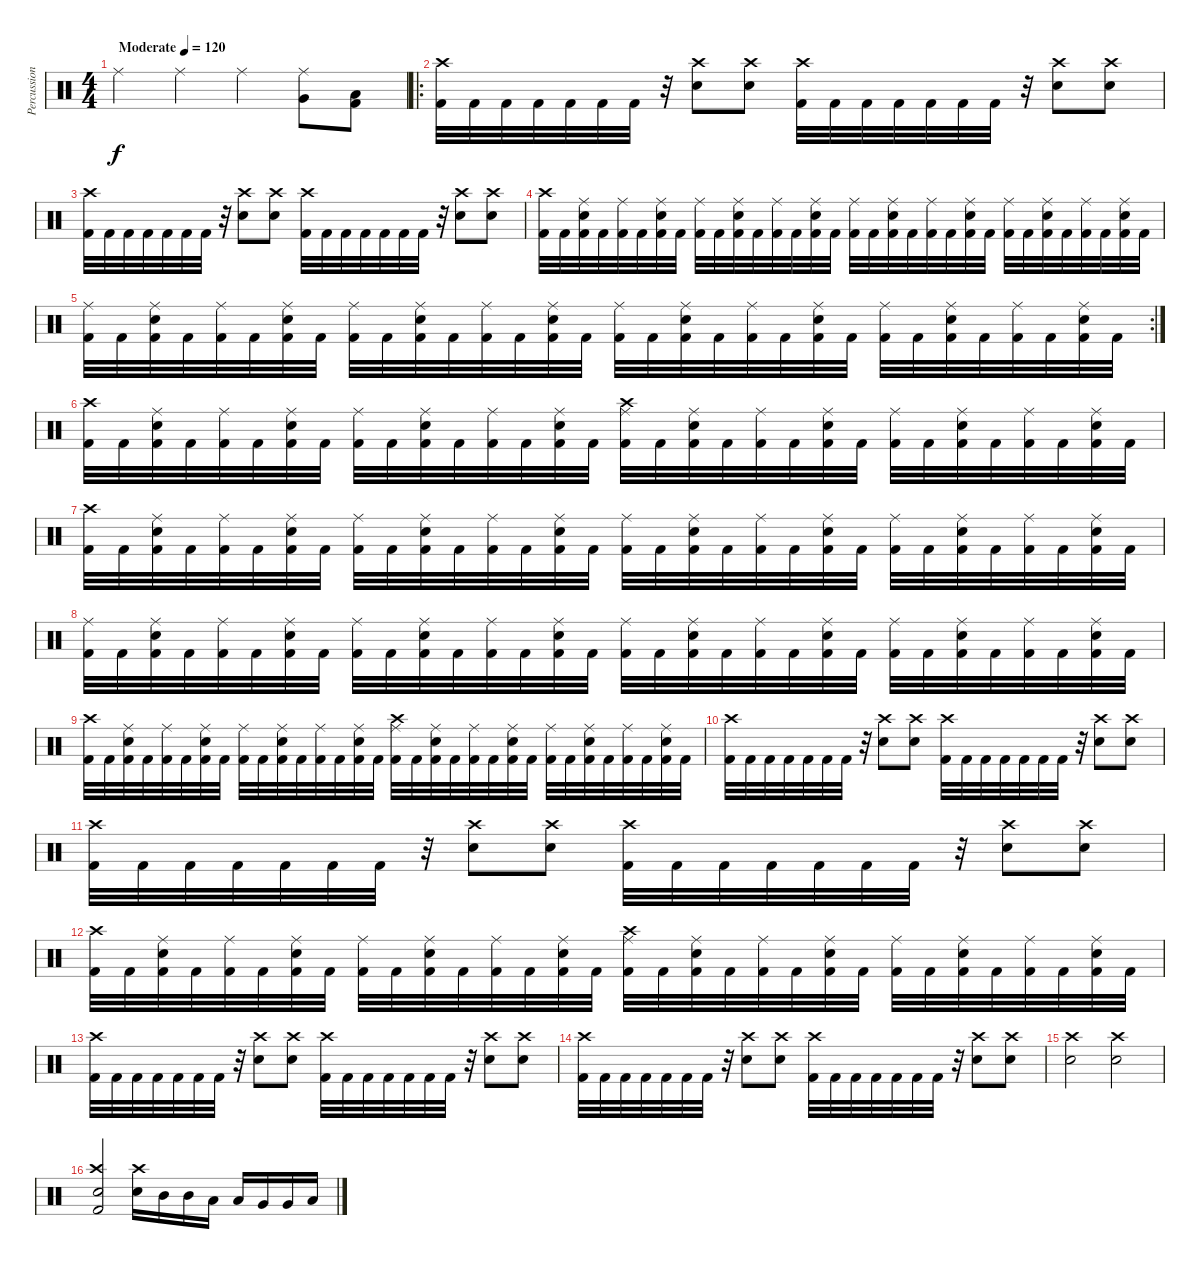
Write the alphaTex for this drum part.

\track ("Percussion" "Percussion") {instrument percussion}
\staff {score}
\articulation defaults
\ts (4 4)
\tempo (120 "Moderate")
\clef neutral
\ks c "Ride (middle)".4{dy f} "Ride (middle)".4 "Ride (middle)".4
("Very Low Tom (hit)" "Ride (middle)").8 ("Low Floor Tom (hit)" "Kick (hit) 2").8 |
\ro
("Crash high (hit)" "Kick (hit) 2").32 "Kick (hit) 2".32 "Kick (hit) 2".32 "Kick (hit) 2".32 "Kick (hit) 2".32 "Kick (hit) 2".32 "Kick (hit) 2".32 r.32 ("Crash high (hit)" "Snare (hit) 2").8 ("Crash high (hit)" "Snare (hit) 2").8 ("Crash high (hit)" "Kick (hit) 2").32 "Kick (hit) 2".32 "Kick (hit) 2".32 "Kick (hit) 2".32 "Kick (hit) 2".32 "Kick (hit) 2".32 "Kick (hit) 2".32 r.32 ("Crash high (hit)" "Snare (hit) 2").8 ("Crash high (hit)" "Snare (hit) 2").8 |
("Crash high (hit)" "Kick (hit) 2").32 "Kick (hit) 2".32 "Kick (hit) 2".32 "Kick (hit) 2".32 "Kick (hit) 2".32 "Kick (hit) 2".32 "Kick (hit) 2".32 r.32 ("Crash high (hit)" "Snare (hit) 2").8 ("Crash high (hit)" "Snare (hit) 2").8 ("Crash high (hit)" "Kick (hit) 2").32 "Kick (hit) 2".32 "Kick (hit) 2".32 "Kick (hit) 2".32 "Kick (hit) 2".32 "Kick (hit) 2".32 "Kick (hit) 2".32 r.32 ("Crash high (hit)" "Snare (hit) 2").8 ("Crash high (hit)" "Snare (hit) 2").8 |
("Crash high (hit)" "Kick (hit) 2").32 "Kick (hit) 2".32 ("Ride (middle)" "Snare (hit) 2" "Kick (hit) 2").32 "Kick (hit) 2".32 ("Ride (middle)" "Kick (hit) 2").32 "Kick (hit) 2".32 ("Ride (middle)" "Snare (hit) 2" "Kick (hit) 2").32 "Kick (hit) 2".32 ("Ride (middle)" "Kick (hit) 2").32 "Kick (hit) 2".32 ("Ride (middle)" "Snare (hit) 2" "Kick (hit) 2").32 "Kick (hit) 2".32 ("Ride (middle)" "Kick (hit) 2").32 "Kick (hit) 2".32 ("Ride (middle)" "Snare (hit) 2" "Kick (hit) 2").32 "Kick (hit) 2".32 ("Ride (middle)" "Kick (hit) 2").32 "Kick (hit) 2".32 ("Ride (middle)" "Snare (hit) 2" "Kick (hit) 2").32 "Kick (hit) 2".32 ("Ride (middle)" "Kick (hit) 2").32 "Kick (hit) 2".32 ("Ride (middle)" "Snare (hit) 2" "Kick (hit) 2").32 "Kick (hit) 2".32 ("Ride (middle)" "Kick (hit) 2").32 "Kick (hit) 2".32 ("Ride (middle)" "Snare (hit) 2" "Kick (hit) 2").32 "Kick (hit) 2".32 ("Ride (middle)" "Kick (hit) 2").32 "Kick (hit) 2".32 ("Ride (middle)" "Snare (hit) 2" "Kick (hit) 2").32 "Kick (hit) 2".32 |
\rc 2
("Ride (middle)" "Kick (hit) 2").32 "Kick (hit) 2".32 ("Ride (middle)" "Snare (hit) 2" "Kick (hit) 2").32 "Kick (hit) 2".32 ("Ride (middle)" "Kick (hit) 2").32 "Kick (hit) 2".32 ("Ride (middle)" "Snare (hit) 2" "Kick (hit) 2").32 "Kick (hit) 2".32 ("Ride (middle)" "Kick (hit) 2").32 "Kick (hit) 2".32 ("Ride (middle)" "Snare (hit) 2" "Kick (hit) 2").32 "Kick (hit) 2".32 ("Ride (middle)" "Kick (hit) 2").32 "Kick (hit) 2".32 ("Ride (middle)" "Snare (hit) 2" "Kick (hit) 2").32 "Kick (hit) 2".32 ("Ride (middle)" "Kick (hit) 2").32 "Kick (hit) 2".32 ("Ride (middle)" "Snare (hit) 2" "Kick (hit) 2").32 "Kick (hit) 2".32 ("Ride (middle)" "Kick (hit) 2").32 "Kick (hit) 2".32 ("Ride (middle)" "Snare (hit) 2" "Kick (hit) 2").32 "Kick (hit) 2".32 ("Ride (middle)" "Kick (hit) 2").32 "Kick (hit) 2".32 ("Ride (middle)" "Snare (hit) 2" "Kick (hit) 2").32 "Kick (hit) 2".32 ("Ride (middle)" "Kick (hit) 2").32 "Kick (hit) 2".32 ("Ride (middle)" "Snare (hit) 2" "Kick (hit) 2").32 "Kick (hit) 2".32 |
("Crash high (hit)" "Kick (hit) 2").32 "Kick (hit) 2".32 ("Ride (middle)" "Snare (hit) 2" "Kick (hit) 2").32 "Kick (hit) 2".32 ("Ride (middle)" "Kick (hit) 2").32 "Kick (hit) 2".32 ("Ride (middle)" "Snare (hit) 2" "Kick (hit) 2").32 "Kick (hit) 2".32 ("Ride (middle)" "Kick (hit) 2").32 "Kick (hit) 2".32 ("Ride (middle)" "Snare (hit) 2" "Kick (hit) 2").32 "Kick (hit) 2".32 ("Ride (middle)" "Kick (hit) 2").32 "Kick (hit) 2".32 ("Ride (middle)" "Snare (hit) 2" "Kick (hit) 2").32 "Kick (hit) 2".32 ("Crash high (hit)" "Ride (middle)" "Kick (hit) 2").32 "Kick (hit) 2".32 ("Ride (middle)" "Snare (hit) 2" "Kick (hit) 2").32 "Kick (hit) 2".32 ("Ride (middle)" "Kick (hit) 2").32 "Kick (hit) 2".32 ("Ride (middle)" "Snare (hit) 2" "Kick (hit) 2").32 "Kick (hit) 2".32 ("Ride (middle)" "Kick (hit) 2").32 "Kick (hit) 2".32 ("Ride (middle)" "Snare (hit) 2" "Kick (hit) 2").32 "Kick (hit) 2".32 ("Ride (middle)" "Kick (hit) 2").32 "Kick (hit) 2".32 ("Ride (middle)" "Snare (hit) 2" "Kick (hit) 2").32 "Kick (hit) 2".32 |
("Crash high (hit)" "Kick (hit) 2").32 "Kick (hit) 2".32 ("Ride (middle)" "Snare (hit) 2" "Kick (hit) 2").32 "Kick (hit) 2".32 ("Ride (middle)" "Kick (hit) 2").32 "Kick (hit) 2".32 ("Ride (middle)" "Snare (hit) 2" "Kick (hit) 2").32 "Kick (hit) 2".32 ("Ride (middle)" "Kick (hit) 2").32 "Kick (hit) 2".32 ("Ride (middle)" "Snare (hit) 2" "Kick (hit) 2").32 "Kick (hit) 2".32 ("Ride (middle)" "Kick (hit) 2").32 "Kick (hit) 2".32 ("Ride (middle)" "Snare (hit) 2" "Kick (hit) 2").32 "Kick (hit) 2".32 ("Ride (middle)" "Kick (hit) 2").32 "Kick (hit) 2".32 ("Ride (middle)" "Snare (hit) 2" "Kick (hit) 2").32 "Kick (hit) 2".32 ("Ride (middle)" "Kick (hit) 2").32 "Kick (hit) 2".32 ("Ride (middle)" "Snare (hit) 2" "Kick (hit) 2").32 "Kick (hit) 2".32 ("Ride (middle)" "Kick (hit) 2").32 "Kick (hit) 2".32 ("Ride (middle)" "Snare (hit) 2" "Kick (hit) 2").32 "Kick (hit) 2".32 ("Ride (middle)" "Kick (hit) 2").32 "Kick (hit) 2".32 ("Ride (middle)" "Snare (hit) 2" "Kick (hit) 2").32 "Kick (hit) 2".32 |
("Ride (middle)" "Kick (hit) 2").32 "Kick (hit) 2".32 ("Ride (middle)" "Snare (hit) 2" "Kick (hit) 2").32 "Kick (hit) 2".32 ("Ride (middle)" "Kick (hit) 2").32 "Kick (hit) 2".32 ("Ride (middle)" "Snare (hit) 2" "Kick (hit) 2").32 "Kick (hit) 2".32 ("Ride (middle)" "Kick (hit) 2").32 "Kick (hit) 2".32 ("Ride (middle)" "Snare (hit) 2" "Kick (hit) 2").32 "Kick (hit) 2".32 ("Ride (middle)" "Kick (hit) 2").32 "Kick (hit) 2".32 ("Ride (middle)" "Snare (hit) 2" "Kick (hit) 2").32 "Kick (hit) 2".32 ("Ride (middle)" "Kick (hit) 2").32 "Kick (hit) 2".32 ("Ride (middle)" "Snare (hit) 2" "Kick (hit) 2").32 "Kick (hit) 2".32 ("Ride (middle)" "Kick (hit) 2").32 "Kick (hit) 2".32 ("Ride (middle)" "Snare (hit) 2" "Kick (hit) 2").32 "Kick (hit) 2".32 ("Ride (middle)" "Kick (hit) 2").32 "Kick (hit) 2".32 ("Ride (middle)" "Snare (hit) 2" "Kick (hit) 2").32 "Kick (hit) 2".32 ("Ride (middle)" "Kick (hit) 2").32 "Kick (hit) 2".32 ("Ride (middle)" "Snare (hit) 2" "Kick (hit) 2").32 "Kick (hit) 2".32 |
("Crash high (hit)" "Kick (hit) 2").32 "Kick (hit) 2".32 ("Ride (middle)" "Snare (hit) 2" "Kick (hit) 2").32 "Kick (hit) 2".32 ("Ride (middle)" "Kick (hit) 2").32 "Kick (hit) 2".32 ("Ride (middle)" "Snare (hit) 2" "Kick (hit) 2").32 "Kick (hit) 2".32 ("Ride (middle)" "Kick (hit) 2").32 "Kick (hit) 2".32 ("Ride (middle)" "Snare (hit) 2" "Kick (hit) 2").32 "Kick (hit) 2".32 ("Ride (middle)" "Kick (hit) 2").32 "Kick (hit) 2".32 ("Ride (middle)" "Snare (hit) 2" "Kick (hit) 2").32 "Kick (hit) 2".32 ("Crash high (hit)" "Ride (middle)" "Kick (hit) 2").32 "Kick (hit) 2".32 ("Ride (middle)" "Snare (hit) 2" "Kick (hit) 2").32 "Kick (hit) 2".32 ("Ride (middle)" "Kick (hit) 2").32 "Kick (hit) 2".32 ("Ride (middle)" "Snare (hit) 2" "Kick (hit) 2").32 "Kick (hit) 2".32 ("Ride (middle)" "Kick (hit) 2").32 "Kick (hit) 2".32 ("Ride (middle)" "Snare (hit) 2" "Kick (hit) 2").32 "Kick (hit) 2".32 ("Ride (middle)" "Kick (hit) 2").32 "Kick (hit) 2".32 ("Ride (middle)" "Snare (hit) 2" "Kick (hit) 2").32 "Kick (hit) 2".32 |
("Crash high (hit)" "Kick (hit) 2").32 "Kick (hit) 2".32 "Kick (hit) 2".32 "Kick (hit) 2".32 "Kick (hit) 2".32 "Kick (hit) 2".32 "Kick (hit) 2".32 r.32 ("Crash high (hit)" "Snare (hit) 2").8 ("Crash high (hit)" "Snare (hit) 2").8 ("Crash high (hit)" "Kick (hit) 2").32 "Kick (hit) 2".32 "Kick (hit) 2".32 "Kick (hit) 2".32 "Kick (hit) 2".32 "Kick (hit) 2".32 "Kick (hit) 2".32 r.32 ("Crash high (hit)" "Snare (hit) 2").8 ("Crash high (hit)" "Snare (hit) 2").8 |
("Crash high (hit)" "Kick (hit) 2").32 "Kick (hit) 2".32 "Kick (hit) 2".32 "Kick (hit) 2".32 "Kick (hit) 2".32 "Kick (hit) 2".32 "Kick (hit) 2".32 r.32 ("Crash high (hit)" "Snare (hit) 2").8 ("Crash high (hit)" "Snare (hit) 2").8 ("Crash high (hit)" "Kick (hit) 2").32 "Kick (hit) 2".32 "Kick (hit) 2".32 "Kick (hit) 2".32 "Kick (hit) 2".32 "Kick (hit) 2".32 "Kick (hit) 2".32 r.32 ("Crash high (hit)" "Snare (hit) 2").8 ("Crash high (hit)" "Snare (hit) 2").8 |
("Crash high (hit)" "Kick (hit) 2").32 "Kick (hit) 2".32 ("Ride (middle)" "Snare (hit) 2" "Kick (hit) 2").32 "Kick (hit) 2".32 ("Ride (middle)" "Kick (hit) 2").32 "Kick (hit) 2".32 ("Ride (middle)" "Snare (hit) 2" "Kick (hit) 2").32 "Kick (hit) 2".32 ("Ride (middle)" "Kick (hit) 2").32 "Kick (hit) 2".32 ("Ride (middle)" "Snare (hit) 2" "Kick (hit) 2").32 "Kick (hit) 2".32 ("Ride (middle)" "Kick (hit) 2").32 "Kick (hit) 2".32 ("Ride (middle)" "Snare (hit) 2" "Kick (hit) 2").32 "Kick (hit) 2".32 ("Crash high (hit)" "Ride (middle)" "Kick (hit) 2").32 "Kick (hit) 2".32 ("Ride (middle)" "Snare (hit) 2" "Kick (hit) 2").32 "Kick (hit) 2".32 ("Ride (middle)" "Kick (hit) 2").32 "Kick (hit) 2".32 ("Ride (middle)" "Snare (hit) 2" "Kick (hit) 2").32 "Kick (hit) 2".32 ("Ride (middle)" "Kick (hit) 2").32 "Kick (hit) 2".32 ("Ride (middle)" "Snare (hit) 2" "Kick (hit) 2").32 "Kick (hit) 2".32 ("Ride (middle)" "Kick (hit) 2").32 "Kick (hit) 2".32 ("Ride (middle)" "Snare (hit) 2" "Kick (hit) 2").32 "Kick (hit) 2".32 |
("Crash high (hit)" "Kick (hit) 2").32 "Kick (hit) 2".32 "Kick (hit) 2".32 "Kick (hit) 2".32 "Kick (hit) 2".32 "Kick (hit) 2".32 "Kick (hit) 2".32 r.32 ("Crash high (hit)" "Snare (hit) 2").8 ("Crash high (hit)" "Snare (hit) 2").8 ("Crash high (hit)" "Kick (hit) 2").32 "Kick (hit) 2".32 "Kick (hit) 2".32 "Kick (hit) 2".32 "Kick (hit) 2".32 "Kick (hit) 2".32 "Kick (hit) 2".32 r.32 ("Crash high (hit)" "Snare (hit) 2").8 ("Crash high (hit)" "Snare (hit) 2").8 |
("Crash high (hit)" "Kick (hit) 2").32 "Kick (hit) 2".32 "Kick (hit) 2".32 "Kick (hit) 2".32 "Kick (hit) 2".32 "Kick (hit) 2".32 "Kick (hit) 2".32 r.32 ("Crash high (hit)" "Snare (hit) 2").8 ("Crash high (hit)" "Snare (hit) 2").8 ("Crash high (hit)" "Kick (hit) 2").32 "Kick (hit) 2".32 "Kick (hit) 2".32 "Kick (hit) 2".32 "Kick (hit) 2".32 "Kick (hit) 2".32 "Kick (hit) 2".32 r.32 ("Crash high (hit)" "Snare (hit) 2").8 ("Crash high (hit)" "Snare (hit) 2").8 |
("Crash high (hit)" "Snare (hit) 2").2 ("Crash high (hit)" "Snare (hit) 2").2 |
("Crash high (hit)" "Snare (hit) 2" "Kick (hit) 2").2 ("Crash high (hit)" "Snare (hit) 2").16 "Mid Tom (hit)".16 "Mid Tom (hit)".16 "Low Tom (hit)".16 "Low Tom (hit)".16 "Very Low Tom (hit)".16 "Very Low Tom (hit)".16 "Low Floor Tom (hit)".16
